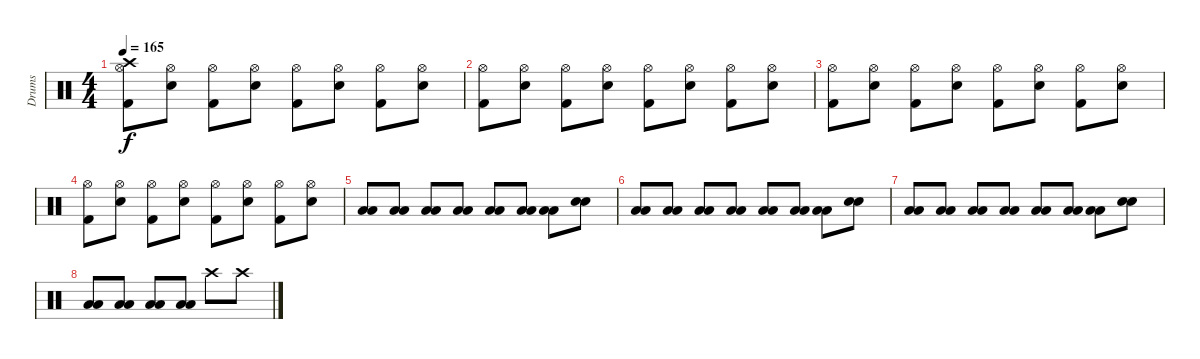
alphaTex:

\track ("Drums" "Drums") {instrument percussion}
\staff {score}
\articulation defaults
\ts (4 4)
\tempo 165
\clef neutral
\ks c
("Crash high (hit)" "Hi-Hat (open)" "Kick (hit) 2").8{dy f} ("Hi-Hat (open)" "Snare (hit) 2").8 ("Hi-Hat (open)" "Kick (hit) 2").8 ("Hi-Hat (open)" "Snare (hit) 2").8 ("Hi-Hat (open)" "Kick (hit) 2").8 ("Hi-Hat (open)" "Snare (hit) 2").8 ("Hi-Hat (open)" "Kick (hit) 2").8 ("Hi-Hat (open)" "Snare (hit) 2").8 |
("Hi-Hat (open)" "Kick (hit) 2").8 ("Hi-Hat (open)" "Snare (hit) 2").8 ("Hi-Hat (open)" "Kick (hit) 2").8 ("Hi-Hat (open)" "Snare (hit) 2").8 ("Hi-Hat (open)" "Kick (hit) 2").8 ("Hi-Hat (open)" "Snare (hit) 2").8 ("Hi-Hat (open)" "Kick (hit) 2").8 ("Hi-Hat (open)" "Snare (hit) 2").8 |
("Hi-Hat (open)" "Kick (hit) 2").8 ("Hi-Hat (open)" "Snare (hit) 2").8 ("Hi-Hat (open)" "Kick (hit) 2").8 ("Hi-Hat (open)" "Snare (hit) 2").8 ("Hi-Hat (open)" "Kick (hit) 2").8 ("Hi-Hat (open)" "Snare (hit) 2").8 ("Hi-Hat (open)" "Kick (hit) 2").8 ("Hi-Hat (open)" "Snare (hit) 2").8 |
("Hi-Hat (open)" "Kick (hit) 2").8 ("Hi-Hat (open)" "Snare (hit) 2").8 ("Hi-Hat (open)" "Kick (hit) 2").8 ("Hi-Hat (open)" "Snare (hit) 2").8 ("Hi-Hat (open)" "Kick (hit) 2").8 ("Hi-Hat (open)" "Snare (hit) 2").8 ("Hi-Hat (open)" "Kick (hit) 2").8 ("Hi-Hat (open)" "Snare (hit) 2").8 |
("Low Floor Tom (hit)" "Low Floor Tom (hit)").8 ("Low Floor Tom (hit)" "Low Floor Tom (hit)").8 ("Low Floor Tom (hit)" "Low Floor Tom (hit)").8 ("Low Floor Tom (hit)" "Low Floor Tom (hit)").8 ("Low Floor Tom (hit)" "Low Floor Tom (hit)").8 ("Low Floor Tom (hit)" "Low Floor Tom (hit)").8 ("Low Floor Tom (hit)" "Low Floor Tom (hit)").8 ("Snare (hit) 2" "Snare (hit) 2").8 |
("Low Floor Tom (hit)" "Low Floor Tom (hit)").8 ("Low Floor Tom (hit)" "Low Floor Tom (hit)").8 ("Low Floor Tom (hit)" "Low Floor Tom (hit)").8 ("Low Floor Tom (hit)" "Low Floor Tom (hit)").8 ("Low Floor Tom (hit)" "Low Floor Tom (hit)").8 ("Low Floor Tom (hit)" "Low Floor Tom (hit)").8 ("Low Floor Tom (hit)" "Low Floor Tom (hit)").8 ("Snare (hit) 2" "Snare (hit) 2").8 |
("Low Floor Tom (hit)" "Low Floor Tom (hit)").8 ("Low Floor Tom (hit)" "Low Floor Tom (hit)").8 ("Low Floor Tom (hit)" "Low Floor Tom (hit)").8 ("Low Floor Tom (hit)" "Low Floor Tom (hit)").8 ("Low Floor Tom (hit)" "Low Floor Tom (hit)").8 ("Low Floor Tom (hit)" "Low Floor Tom (hit)").8 ("Low Floor Tom (hit)" "Low Floor Tom (hit)").8 ("Snare (hit) 2" "Snare (hit) 2").8 |
("Low Floor Tom (hit)" "Low Floor Tom (hit)").8 ("Low Floor Tom (hit)" "Low Floor Tom (hit)").8 ("Low Floor Tom (hit)" "Low Floor Tom (hit)").8 ("Low Floor Tom (hit)" "Low Floor Tom (hit)").8 "Crash high (hit)".8 "Crash high (hit)".8
